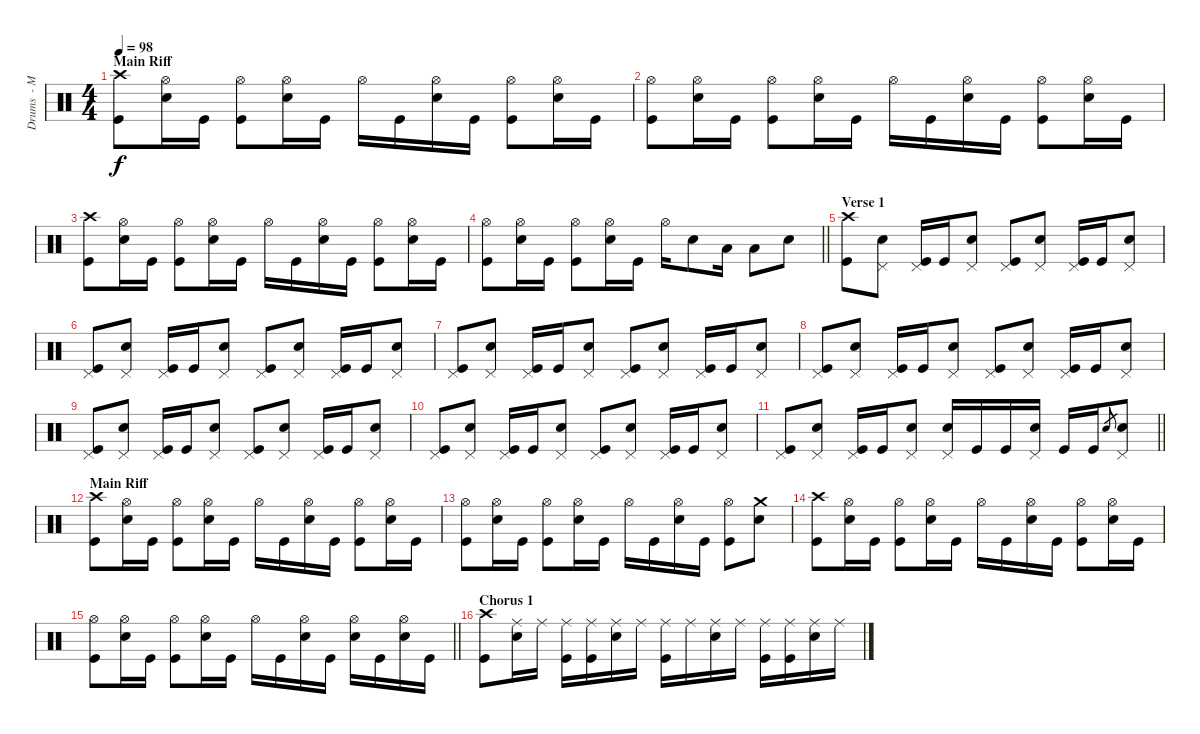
\track ("Drums  - Mikko" "Drums  - M") {instrument percussion}
\staff {score}
\articulation defaults
\ts (4 4)
\section ("" "Main Riff")
\tempo 98
\clef neutral
\ks c
("Crash high (hit)" "Kick (hit)").8{dy f} ("Hi-Hat (open)" "Electric Snare (hit)").16 "Kick (hit)".16 ("Hi-Hat (open)" "Kick (hit)").8 ("Hi-Hat (open)" "Electric Snare (hit)").16 "Kick (hit)".16 "Hi-Hat (open)".16 "Kick (hit)".16 ("Hi-Hat (open)" "Electric Snare (hit)").16 "Kick (hit)".16 ("Hi-Hat (open)" "Kick (hit)").8 ("Hi-Hat (open)" "Electric Snare (hit)").16 "Kick (hit)".16 |
("Hi-Hat (open)" "Kick (hit)").8 ("Hi-Hat (open)" "Electric Snare (hit)").16 "Kick (hit)".16 ("Hi-Hat (open)" "Kick (hit)").8 ("Hi-Hat (open)" "Electric Snare (hit)").16 "Kick (hit)".16 "Hi-Hat (open)".16 "Kick (hit)".16 ("Hi-Hat (open)" "Electric Snare (hit)").16 "Kick (hit)".16 ("Hi-Hat (open)" "Kick (hit)").8 ("Hi-Hat (open)" "Electric Snare (hit)").16 "Kick (hit)".16 |
("Crash high (hit)" "Kick (hit)").8 ("Hi-Hat (open)" "Electric Snare (hit)").16 "Kick (hit)".16 ("Hi-Hat (open)" "Kick (hit)").8 ("Hi-Hat (open)" "Electric Snare (hit)").16 "Kick (hit)".16 "Hi-Hat (open)".16 "Kick (hit)".16 ("Hi-Hat (open)" "Electric Snare (hit)").16 "Kick (hit)".16 ("Hi-Hat (open)" "Kick (hit)").8 ("Hi-Hat (open)" "Electric Snare (hit)").16 "Kick (hit)".16 |
\barLineRight lightlight
("Hi-Hat (open)" "Kick (hit)").8 ("Hi-Hat (open)" "Electric Snare (hit)").16 "Kick (hit)".16 ("Hi-Hat (open)" "Kick (hit)").8 ("Hi-Hat (open)" "Electric Snare (hit)").16 "Kick (hit)".16 "Hi-Hat (open)".16 "Electric Snare (hit)".8 "Low Tom (hit)".16 "Low Tom (hit)".8 "Electric Snare (hit)".8 |
\section ("" "Verse 1")
("Crash high (hit)" "Kick (hit)").8 ("Pedal Hi-Hat (hit)" "Electric Snare (hit)").8 ("Pedal Hi-Hat (hit)" "Kick (hit)").16 "Kick (hit)".16 ("Pedal Hi-Hat (hit)" "Electric Snare (hit)").8 ("Pedal Hi-Hat (hit)" "Kick (hit)").8 ("Pedal Hi-Hat (hit)" "Electric Snare (hit)").8 ("Pedal Hi-Hat (hit)" "Kick (hit)").16 "Kick (hit)".16 ("Pedal Hi-Hat (hit)" "Electric Snare (hit)").8 |
("Pedal Hi-Hat (hit)" "Kick (hit)").8 ("Pedal Hi-Hat (hit)" "Electric Snare (hit)").8 ("Pedal Hi-Hat (hit)" "Kick (hit)").16 "Kick (hit)".16 ("Pedal Hi-Hat (hit)" "Electric Snare (hit)").8 ("Pedal Hi-Hat (hit)" "Kick (hit)").8 ("Pedal Hi-Hat (hit)" "Electric Snare (hit)").8 ("Pedal Hi-Hat (hit)" "Kick (hit)").16 "Kick (hit)".16 ("Pedal Hi-Hat (hit)" "Electric Snare (hit)").8 |
("Pedal Hi-Hat (hit)" "Kick (hit)").8 ("Pedal Hi-Hat (hit)" "Electric Snare (hit)").8 ("Pedal Hi-Hat (hit)" "Kick (hit)").16 "Kick (hit)".16 ("Pedal Hi-Hat (hit)" "Electric Snare (hit)").8 ("Pedal Hi-Hat (hit)" "Kick (hit)").8 ("Pedal Hi-Hat (hit)" "Electric Snare (hit)").8 ("Pedal Hi-Hat (hit)" "Kick (hit)").16 "Kick (hit)".16 ("Pedal Hi-Hat (hit)" "Electric Snare (hit)").8 |
("Pedal Hi-Hat (hit)" "Kick (hit)").8 ("Pedal Hi-Hat (hit)" "Electric Snare (hit)").8 ("Pedal Hi-Hat (hit)" "Kick (hit)").16 "Kick (hit)".16 ("Pedal Hi-Hat (hit)" "Electric Snare (hit)").8 ("Pedal Hi-Hat (hit)" "Kick (hit)").8 ("Pedal Hi-Hat (hit)" "Electric Snare (hit)").8 ("Pedal Hi-Hat (hit)" "Kick (hit)").16 "Kick (hit)".16 ("Pedal Hi-Hat (hit)" "Electric Snare (hit)").8 |
("Pedal Hi-Hat (hit)" "Kick (hit)").8 ("Pedal Hi-Hat (hit)" "Electric Snare (hit)").8 ("Pedal Hi-Hat (hit)" "Kick (hit)").16 "Kick (hit)".16 ("Pedal Hi-Hat (hit)" "Electric Snare (hit)").8 ("Pedal Hi-Hat (hit)" "Kick (hit)").8 ("Pedal Hi-Hat (hit)" "Electric Snare (hit)").8 ("Pedal Hi-Hat (hit)" "Kick (hit)").16 "Kick (hit)".16 ("Pedal Hi-Hat (hit)" "Electric Snare (hit)").8 |
("Pedal Hi-Hat (hit)" "Kick (hit)").8 ("Pedal Hi-Hat (hit)" "Electric Snare (hit)").8 ("Pedal Hi-Hat (hit)" "Kick (hit)").16 "Kick (hit)".16 ("Pedal Hi-Hat (hit)" "Electric Snare (hit)").8 ("Pedal Hi-Hat (hit)" "Kick (hit)").8 ("Pedal Hi-Hat (hit)" "Electric Snare (hit)").8 ("Pedal Hi-Hat (hit)" "Kick (hit)").16 "Kick (hit)".16 ("Pedal Hi-Hat (hit)" "Electric Snare (hit)").8 |
\barLineRight lightlight
("Pedal Hi-Hat (hit)" "Kick (hit)").8 ("Pedal Hi-Hat (hit)" "Electric Snare (hit)").8 ("Pedal Hi-Hat (hit)" "Kick (hit)").16 "Kick (hit)".16 ("Pedal Hi-Hat (hit)" "Electric Snare (hit)").8 ("Pedal Hi-Hat (hit)" "Electric Snare (hit)").16 "Kick (hit)".16 "Kick (hit)".16 ("Pedal Hi-Hat (hit)" "Electric Snare (hit)").16 "Kick (hit)".16 "Kick (hit)".16 "Electric Snare (hit)".8{gr} ("Pedal Hi-Hat (hit)" "Electric Snare (hit)").8 |
\section ("" "Main Riff")
("Crash high (hit)" "Kick (hit)").8 ("Hi-Hat (open)" "Electric Snare (hit)").16 "Kick (hit)".16 ("Hi-Hat (open)" "Kick (hit)").8 ("Hi-Hat (open)" "Electric Snare (hit)").16 "Kick (hit)".16 "Hi-Hat (open)".16 "Kick (hit)".16 ("Hi-Hat (open)" "Electric Snare (hit)").16 "Kick (hit)".16 ("Hi-Hat (open)" "Kick (hit)").8 ("Hi-Hat (open)" "Electric Snare (hit)").16 "Kick (hit)".16 |
("Hi-Hat (open)" "Kick (hit)").8 ("Hi-Hat (open)" "Electric Snare (hit)").16 "Kick (hit)".16 ("Hi-Hat (open)" "Kick (hit)").8 ("Hi-Hat (open)" "Electric Snare (hit)").16 "Kick (hit)".16 "Hi-Hat (open)".16 "Kick (hit)".16 ("Hi-Hat (open)" "Electric Snare (hit)").16 "Kick (hit)".16 ("Hi-Hat (open)" "Kick (hit)").8 ("Crash medium (hit)" "Electric Snare (hit)").8 |
("Crash high (hit)" "Kick (hit)").8 ("Hi-Hat (open)" "Electric Snare (hit)").16 "Kick (hit)".16 ("Hi-Hat (open)" "Kick (hit)").8 ("Hi-Hat (open)" "Electric Snare (hit)").16 "Kick (hit)".16 "Hi-Hat (open)".16 "Kick (hit)".16 ("Hi-Hat (open)" "Electric Snare (hit)").16 "Kick (hit)".16 ("Hi-Hat (open)" "Kick (hit)").8 ("Hi-Hat (open)" "Electric Snare (hit)").16 "Kick (hit)".16 |
\barLineRight lightlight
("Hi-Hat (open)" "Kick (hit)").8 ("Hi-Hat (open)" "Electric Snare (hit)").16 "Kick (hit)".16 ("Hi-Hat (open)" "Kick (hit)").8 ("Hi-Hat (open)" "Electric Snare (hit)").16 "Kick (hit)".16 "Hi-Hat (open)".16 "Kick (hit)".16 ("Hi-Hat (open)" "Electric Snare (hit)").16 "Kick (hit)".16 ("Hi-Hat (open)" "Electric Snare (hit)").16 "Kick (hit)".16 ("Hi-Hat (open)" "Electric Snare (hit)").16 "Kick (hit)".16 |
\section ("" "Chorus 1")
("Crash high (hit)" "Kick (hit)").8 ("Ride (middle)" "Electric Snare (hit)").16 "Ride (middle)".16 ("Ride (middle)" "Kick (hit)").16 ("Ride (middle)" "Kick (hit)").16 ("Ride (middle)" "Electric Snare (hit)").16 "Ride (middle)".16 ("Ride (middle)" "Kick (hit)").16 "Ride (middle)".16 ("Ride (middle)" "Electric Snare (hit)").16 "Ride (middle)".16 ("Ride (middle)" "Kick (hit)").16 ("Ride (middle)" "Kick (hit)").16 ("Ride (middle)" "Electric Snare (hit)").16 "Ride (middle)".16
